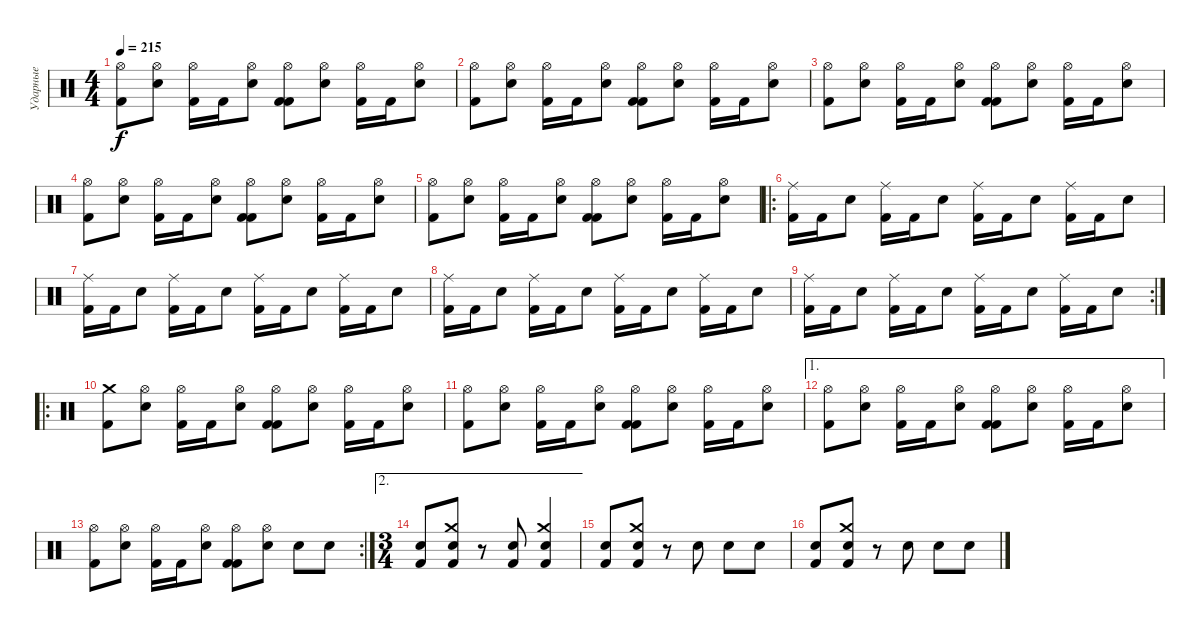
\track ("Ударные" "Ударные") {instrument percussion}
\staff {score}
\articulation defaults
\ts (4 4)
\tempo 215
\clef neutral
\ks c
("Kick (hit) 2" "Hi-Hat (open)").8{dy f} ("Hi-Hat (open)" "Electric Snare (hit)").8 ("Kick (hit) 2" "Hi-Hat (open)").16 "Kick (hit) 2".16 ("Hi-Hat (open)" "Electric Snare (hit)").8 ("Kick (hit) 2" "Kick (hit) 2" "Hi-Hat (open)").8 ("Hi-Hat (open)" "Electric Snare (hit)").8 ("Kick (hit) 2" "Hi-Hat (open)").16 "Kick (hit) 2".16 ("Hi-Hat (open)" "Electric Snare (hit)").8 |
("Kick (hit) 2" "Hi-Hat (open)").8 ("Hi-Hat (open)" "Electric Snare (hit)").8 ("Kick (hit) 2" "Hi-Hat (open)").16 "Kick (hit) 2".16 ("Hi-Hat (open)" "Electric Snare (hit)").8 ("Kick (hit) 2" "Kick (hit) 2" "Hi-Hat (open)").8 ("Hi-Hat (open)" "Electric Snare (hit)").8 ("Kick (hit) 2" "Hi-Hat (open)").16 "Kick (hit) 2".16 ("Hi-Hat (open)" "Electric Snare (hit)").8 |
("Kick (hit) 2" "Hi-Hat (open)").8 ("Hi-Hat (open)" "Electric Snare (hit)").8 ("Kick (hit) 2" "Hi-Hat (open)").16 "Kick (hit) 2".16 ("Hi-Hat (open)" "Electric Snare (hit)").8 ("Kick (hit) 2" "Kick (hit) 2" "Hi-Hat (open)").8 ("Hi-Hat (open)" "Electric Snare (hit)").8 ("Kick (hit) 2" "Hi-Hat (open)").16 "Kick (hit) 2".16 ("Hi-Hat (open)" "Electric Snare (hit)").8 |
("Kick (hit) 2" "Hi-Hat (open)").8 ("Hi-Hat (open)" "Electric Snare (hit)").8 ("Kick (hit) 2" "Hi-Hat (open)").16 "Kick (hit) 2".16 ("Hi-Hat (open)" "Electric Snare (hit)").8 ("Kick (hit) 2" "Kick (hit) 2" "Hi-Hat (open)").8 ("Hi-Hat (open)" "Electric Snare (hit)").8 ("Kick (hit) 2" "Hi-Hat (open)").16 "Kick (hit) 2".16 ("Hi-Hat (open)" "Electric Snare (hit)").8 |
("Kick (hit) 2" "Hi-Hat (open)").8 ("Hi-Hat (open)" "Electric Snare (hit)").8 ("Kick (hit) 2" "Hi-Hat (open)").16 "Kick (hit) 2".16 ("Hi-Hat (open)" "Electric Snare (hit)").8 ("Kick (hit) 2" "Kick (hit) 2" "Hi-Hat (open)").8 ("Hi-Hat (open)" "Electric Snare (hit)").8 ("Kick (hit) 2" "Hi-Hat (open)").16 "Kick (hit) 2".16 ("Hi-Hat (open)" "Electric Snare (hit)").8 |
\ro
("Ride (middle)" "Kick (hit) 2").16 "Kick (hit) 2".16 "Electric Snare (hit)".8 ("Ride (middle)" "Kick (hit) 2").16 "Kick (hit) 2".16 "Electric Snare (hit)".8 ("Ride (middle)" "Kick (hit) 2").16 "Kick (hit) 2".16 "Electric Snare (hit)".8 ("Ride (middle)" "Kick (hit) 2").16 "Kick (hit) 2".16 "Electric Snare (hit)".8 |
("Ride (middle)" "Kick (hit) 2").16 "Kick (hit) 2".16 "Electric Snare (hit)".8 ("Ride (middle)" "Kick (hit) 2").16 "Kick (hit) 2".16 "Electric Snare (hit)".8 ("Ride (middle)" "Kick (hit) 2").16 "Kick (hit) 2".16 "Electric Snare (hit)".8 ("Ride (middle)" "Kick (hit) 2").16 "Kick (hit) 2".16 "Electric Snare (hit)".8 |
("Ride (middle)" "Kick (hit) 2").16 "Kick (hit) 2".16 "Electric Snare (hit)".8 ("Ride (middle)" "Kick (hit) 2").16 "Kick (hit) 2".16 "Electric Snare (hit)".8 ("Ride (middle)" "Kick (hit) 2").16 "Kick (hit) 2".16 "Electric Snare (hit)".8 ("Ride (middle)" "Kick (hit) 2").16 "Kick (hit) 2".16 "Electric Snare (hit)".8 |
\rc 2
("Ride (middle)" "Kick (hit) 2").16 "Kick (hit) 2".16 "Electric Snare (hit)".8 ("Ride (middle)" "Kick (hit) 2").16 "Kick (hit) 2".16 "Electric Snare (hit)".8 ("Ride (middle)" "Kick (hit) 2").16 "Kick (hit) 2".16 "Electric Snare (hit)".8 ("Ride (middle)" "Kick (hit) 2").16 "Kick (hit) 2".16 "Electric Snare (hit)".8 |
\ro
("Kick (hit) 2" "Crash medium (hit)").8 ("Hi-Hat (open)" "Electric Snare (hit)").8 ("Kick (hit) 2" "Hi-Hat (open)").16 "Kick (hit) 2".16 ("Hi-Hat (open)" "Electric Snare (hit)").8 ("Kick (hit) 2" "Kick (hit) 2" "Hi-Hat (open)").8 ("Hi-Hat (open)" "Electric Snare (hit)").8 ("Kick (hit) 2" "Hi-Hat (open)").16 "Kick (hit) 2".16 ("Hi-Hat (open)" "Electric Snare (hit)").8 |
("Kick (hit) 2" "Hi-Hat (open)").8 ("Hi-Hat (open)" "Electric Snare (hit)").8 ("Kick (hit) 2" "Hi-Hat (open)").16 "Kick (hit) 2".16 ("Hi-Hat (open)" "Electric Snare (hit)").8 ("Kick (hit) 2" "Kick (hit) 2" "Hi-Hat (open)").8 ("Hi-Hat (open)" "Electric Snare (hit)").8 ("Kick (hit) 2" "Hi-Hat (open)").16 "Kick (hit) 2".16 ("Hi-Hat (open)" "Electric Snare (hit)").8 |
\ae 1
("Kick (hit) 2" "Hi-Hat (open)").8 ("Hi-Hat (open)" "Electric Snare (hit)").8 ("Kick (hit) 2" "Hi-Hat (open)").16 "Kick (hit) 2".16 ("Hi-Hat (open)" "Electric Snare (hit)").8 ("Kick (hit) 2" "Kick (hit) 2" "Hi-Hat (open)").8 ("Hi-Hat (open)" "Electric Snare (hit)").8 ("Kick (hit) 2" "Hi-Hat (open)").16 "Kick (hit) 2".16 ("Hi-Hat (open)" "Electric Snare (hit)").8 |
\rc 2
("Kick (hit) 2" "Hi-Hat (open)").8 ("Hi-Hat (open)" "Electric Snare (hit)").8 ("Kick (hit) 2" "Hi-Hat (open)").16 "Kick (hit) 2".16 ("Hi-Hat (open)" "Electric Snare (hit)").8 ("Kick (hit) 2" "Kick (hit) 2" "Hi-Hat (open)").8 ("Hi-Hat (open)" "Electric Snare (hit)").8 "Electric Snare (hit)".8 "Electric Snare (hit)".8 |
\ae 2
\ts (3 4)
("Snare (hit) 2" "Kick (hit) 2").8 ("Crash medium (hit)" "Snare (hit) 2" "Kick (hit) 2").8 r.8 ("Snare (hit) 2" "Kick (hit) 2").8 ("Crash medium (hit)" "Snare (hit) 2" "Kick (hit) 2").4 |
("Snare (hit) 2" "Kick (hit) 2").8 ("Crash medium (hit)" "Snare (hit) 2" "Kick (hit) 2").8 r.8 "Electric Snare (hit)".8 "Electric Snare (hit)".8 "Electric Snare (hit)".8 |
("Snare (hit) 2" "Kick (hit) 2").8 ("Crash medium (hit)" "Snare (hit) 2" "Kick (hit) 2").8 r.8 "Electric Snare (hit)".8 "Electric Snare (hit)".8 "Electric Snare (hit)".8
